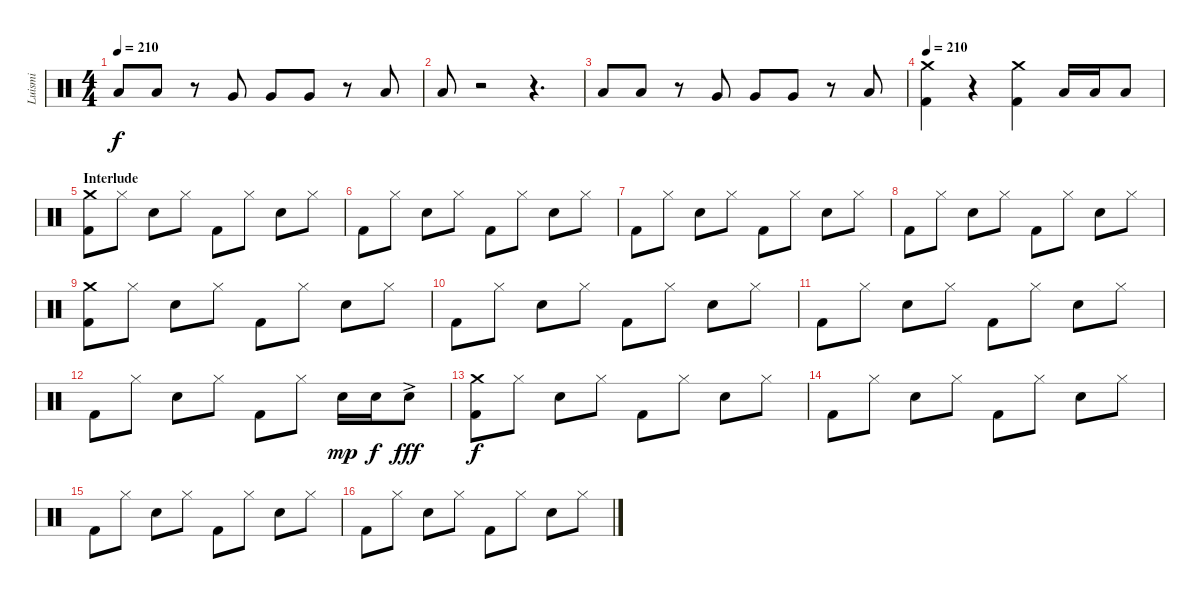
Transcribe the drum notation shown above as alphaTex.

\track ("Luismi" "Luismi") {instrument percussion}
\staff {score}
\articulation defaults
\ts (4 4)
\tempo 210
\clef neutral
\ks c "Low Tom (hit)".8{dy f} "Low Tom (hit)".8
r.8 "Very Low Tom (hit)".8 "Very Low Tom (hit)".8 "Very Low Tom (hit)".8 r.8 "Low Floor Tom (hit)".8 |
"Low Floor Tom (hit)".8 r.2 r.4{d} |
"Low Tom (hit)".8 "Low Tom (hit)".8 r.8 "Very Low Tom (hit)".8 "Very Low Tom (hit)".8 "Very Low Tom (hit)".8 r.8 "Low Floor Tom (hit)".8 |
\tempo 210
("Crash medium (hit)" "Kick (hit) 2").4 r.4 ("Crash medium (hit)" "Kick (hit) 2").4 "Low Tom (hit)".16 "Low Tom (hit)".16 "Low Tom (hit)".8 |
\section ("" "Interlude")
("Crash medium (hit)" "Kick (hit) 2").8 "Hi-Hat (closed)".8 "Snare (hit) 2".8 "Hi-Hat (closed)".8 "Kick (hit) 2".8 "Hi-Hat (closed)".8 "Snare (hit) 2".8 "Hi-Hat (closed)".8 |
"Kick (hit) 2".8 "Hi-Hat (closed)".8 "Snare (hit) 2".8 "Hi-Hat (closed)".8 "Kick (hit) 2".8 "Hi-Hat (closed)".8 "Snare (hit) 2".8 "Hi-Hat (closed)".8 |
"Kick (hit) 2".8 "Hi-Hat (closed)".8 "Snare (hit) 2".8 "Hi-Hat (closed)".8 "Kick (hit) 2".8 "Hi-Hat (closed)".8 "Snare (hit) 2".8 "Hi-Hat (closed)".8 |
"Kick (hit) 2".8 "Hi-Hat (closed)".8 "Snare (hit) 2".8 "Hi-Hat (closed)".8 "Kick (hit) 2".8 "Hi-Hat (closed)".8 "Snare (hit) 2".8 "Hi-Hat (closed)".8 |
("Crash medium (hit)" "Kick (hit) 2").8 "Hi-Hat (closed)".8 "Snare (hit) 2".8 "Hi-Hat (closed)".8 "Kick (hit) 2".8 "Hi-Hat (closed)".8 "Snare (hit) 2".8 "Hi-Hat (closed)".8 |
"Kick (hit) 2".8 "Hi-Hat (closed)".8 "Snare (hit) 2".8 "Hi-Hat (closed)".8 "Kick (hit) 2".8 "Hi-Hat (closed)".8 "Snare (hit) 2".8 "Hi-Hat (closed)".8 |
"Kick (hit) 2".8 "Hi-Hat (closed)".8 "Snare (hit) 2".8 "Hi-Hat (closed)".8 "Kick (hit) 2".8 "Hi-Hat (closed)".8 "Snare (hit) 2".8 "Hi-Hat (closed)".8 |
"Kick (hit) 2".8 "Hi-Hat (closed)".8 "Snare (hit) 2".8 "Hi-Hat (closed)".8 "Kick (hit) 2".8 "Hi-Hat (closed)".8 "Snare (hit) 2".16{dy mp} "Snare (hit) 2".16{dy f} "Snare (hit) 2"{ac}.8{dy fff} |
("Crash medium (hit)" "Kick (hit) 2").8{dy f} "Hi-Hat (closed)".8 "Snare (hit) 2".8 "Hi-Hat (closed)".8 "Kick (hit) 2".8 "Hi-Hat (closed)".8 "Snare (hit) 2".8 "Hi-Hat (closed)".8 |
"Kick (hit) 2".8 "Hi-Hat (closed)".8 "Snare (hit) 2".8 "Hi-Hat (closed)".8 "Kick (hit) 2".8 "Hi-Hat (closed)".8 "Snare (hit) 2".8 "Hi-Hat (closed)".8 |
"Kick (hit) 2".8 "Hi-Hat (closed)".8 "Snare (hit) 2".8 "Hi-Hat (closed)".8 "Kick (hit) 2".8 "Hi-Hat (closed)".8 "Snare (hit) 2".8 "Hi-Hat (closed)".8 |
"Kick (hit) 2".8 "Hi-Hat (closed)".8 "Snare (hit) 2".8 "Hi-Hat (closed)".8 "Kick (hit) 2".8 "Hi-Hat (closed)".8 "Snare (hit) 2".8 "Hi-Hat (closed)".8
